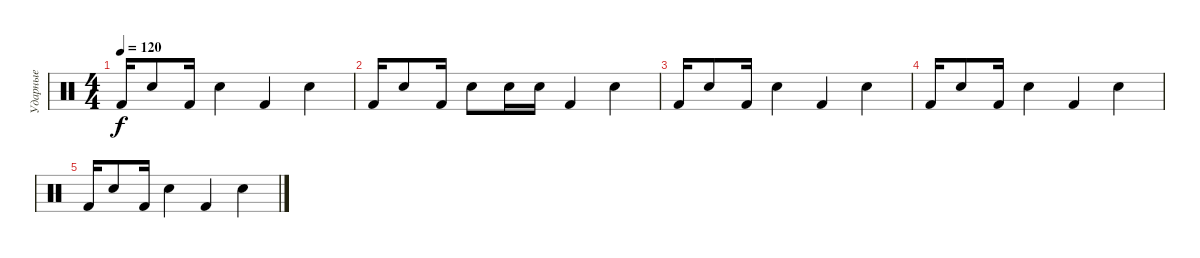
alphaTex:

\track ("Ударные" "Ударные") {instrument percussion}
\staff {score}
\articulation defaults
\ts (4 4)
\tempo 120
\clef neutral
\ks c "Kick (hit) 2".16{dy f} "Snare (hit) 2".8 "Kick (hit) 2".16 "Snare (hit) 2".4 "Kick (hit) 2".4 "Snare (hit) 2".4
|
"Kick (hit) 2".16 "Snare (hit) 2".8 "Kick (hit) 2".16 "Snare (hit) 2".8 "Snare (hit) 2".16 "Snare (hit) 2".16 "Kick (hit) 2".4 "Snare (hit) 2".4 |
"Kick (hit) 2".16 "Snare (hit) 2".8 "Kick (hit) 2".16 "Snare (hit) 2".4 "Kick (hit) 2".4 "Snare (hit) 2".4 |
"Kick (hit) 2".16 "Snare (hit) 2".8 "Kick (hit) 2".16 "Snare (hit) 2".4 "Kick (hit) 2".4 "Snare (hit) 2".4 |
"Kick (hit) 2".16 "Snare (hit) 2".8 "Kick (hit) 2".16 "Snare (hit) 2".4 "Kick (hit) 2".4 "Snare (hit) 2".4
